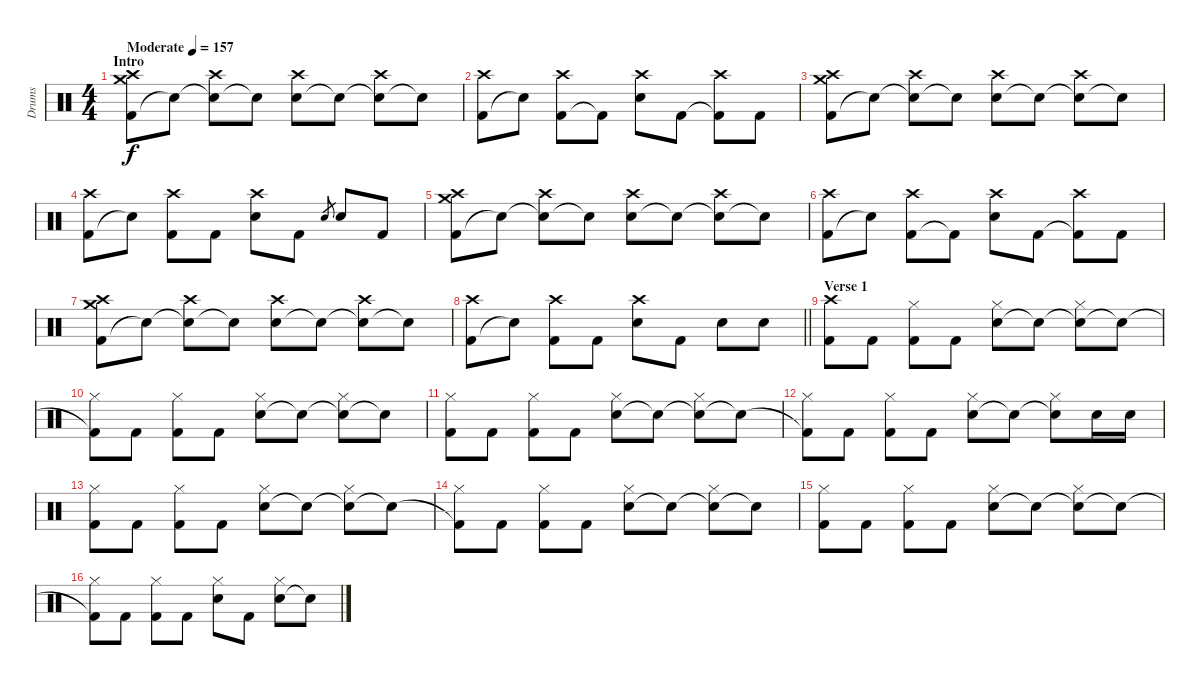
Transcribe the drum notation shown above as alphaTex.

\track ("Drums" "Drums") {instrument percussion}
\staff {score}
\articulation defaults
\ts (4 4)
\section ("" "Intro")
\tempo (157 "Moderate")
\clef neutral
\ks c
("Kick (hit) 2" "Crash medium (hit)" "Crash high (hit)").8{dy f} "Snare (hit)"{t}.8 ("Snare (hit)"{t} "Crash high (hit)").8 "Electric Snare (hit)"{t}.8 ("Electric Snare (hit)" "Crash high (hit)").8 "Snare (hit)"{t}.8 ("Snare (hit)"{t} "Crash high (hit)").8 "Snare (hit)"{t}.8 |
("Kick (hit) 2" "Crash high (hit)").8 "Snare (hit)"{t}.8 ("Kick (hit) 2" "Crash high (hit)").8 "Kick (hit) 2"{t}.8 ("Electric Snare (hit)" "Crash high (hit)").8 "Kick (hit) 2".8 ("Kick (hit) 2"{t} "Crash high (hit)").8 "Kick (hit) 2".8 |
("Kick (hit) 2" "Crash medium (hit)" "Crash high (hit)").8 "Snare (hit)"{t}.8 ("Snare (hit)"{t} "Crash high (hit)").8 "Electric Snare (hit)"{t}.8 ("Electric Snare (hit)" "Crash high (hit)").8 "Snare (hit)"{t}.8 ("Snare (hit)"{t} "Crash high (hit)").8 "Snare (hit)"{t}.8 |
("Kick (hit) 2" "Crash high (hit)").8 "Snare (hit)"{t}.8 ("Kick (hit) 2" "Crash high (hit)").8 "Kick (hit) 2".8 ("Electric Snare (hit)" "Crash high (hit)").8 "Kick (hit) 2".8 "Electric Snare (hit)".8{gr} "Electric Snare (hit)".8 "Kick (hit) 2".8 |
("Kick (hit) 2" "Crash medium (hit)" "Crash high (hit)").8 "Snare (hit)"{t}.8 ("Snare (hit)"{t} "Crash high (hit)").8 "Electric Snare (hit)"{t}.8 ("Electric Snare (hit)" "Crash high (hit)").8 "Snare (hit)"{t}.8 ("Snare (hit)"{t} "Crash high (hit)").8 "Snare (hit)"{t}.8 |
("Kick (hit) 2" "Crash high (hit)").8 "Snare (hit)"{t}.8 ("Kick (hit) 2" "Crash high (hit)").8 "Kick (hit) 2"{t}.8 ("Electric Snare (hit)" "Crash high (hit)").8 "Kick (hit) 2".8 ("Kick (hit) 2"{t} "Crash high (hit)").8 "Kick (hit) 2".8 |
("Kick (hit) 2" "Crash medium (hit)" "Crash high (hit)").8 "Snare (hit)"{t}.8 ("Snare (hit)"{t} "Crash high (hit)").8 "Electric Snare (hit)"{t}.8 ("Electric Snare (hit)" "Crash high (hit)").8 "Snare (hit)"{t}.8 ("Snare (hit)"{t} "Crash high (hit)").8 "Snare (hit)"{t}.8 |
\barLineRight lightlight
("Kick (hit) 2" "Crash high (hit)").8 "Snare (hit)"{t}.8 ("Kick (hit) 2" "Crash high (hit)").8 "Kick (hit) 2".8 ("Electric Snare (hit)" "Crash high (hit)").8 "Kick (hit) 2".8 "Electric Snare (hit)".8 "Electric Snare (hit)".8 |
\section ("" "Verse 1")
("Kick (hit) 2" "Crash high (hit)").8 "Kick (hit) 2".8 ("Kick (hit) 2" "Hi-Hat (closed)").8 "Kick (hit) 2".8 ("Electric Snare (hit)" "Hi-Hat (closed)").8 "Snare (hit)"{t}.8 ("Snare (hit)"{t} "Hi-Hat (closed)").8 "Snare (hit)"{t}.8 |
("Kick (hit) 2"{t} "Hi-Hat (closed)").8 "Kick (hit) 2".8 ("Kick (hit) 2" "Hi-Hat (closed)").8 "Kick (hit) 2".8 ("Electric Snare (hit)" "Hi-Hat (closed)").8 "Electric Snare (hit)"{t}.8 ("Snare (hit)"{t} "Hi-Hat (closed)").8 "Snare (hit)"{t}.8 |
("Kick (hit) 2" "Hi-Hat (closed)").8 "Kick (hit) 2".8 ("Kick (hit) 2" "Hi-Hat (closed)").8 "Kick (hit) 2".8 ("Electric Snare (hit)" "Hi-Hat (closed)").8 "Snare (hit)"{t}.8 ("Snare (hit)"{t} "Hi-Hat (closed)").8 "Snare (hit)"{t}.8 |
("Kick (hit) 2"{t} "Hi-Hat (closed)").8 "Kick (hit) 2".8 ("Kick (hit) 2" "Hi-Hat (closed)").8 "Kick (hit) 2".8 ("Electric Snare (hit)" "Hi-Hat (closed)").8 "Electric Snare (hit)"{t}.8 ("Snare (hit)"{t} "Hi-Hat (closed)").8 "Electric Snare (hit)".16 "Electric Snare (hit)".16 |
("Kick (hit) 2" "Hi-Hat (closed)").8 "Kick (hit) 2".8 ("Kick (hit) 2" "Hi-Hat (closed)").8 "Kick (hit) 2".8 ("Electric Snare (hit)" "Hi-Hat (closed)").8 "Snare (hit)"{t}.8 ("Snare (hit)"{t} "Hi-Hat (closed)").8 "Snare (hit)"{t}.8 |
("Kick (hit) 2"{t} "Hi-Hat (closed)").8 "Kick (hit) 2".8 ("Kick (hit) 2" "Hi-Hat (closed)").8 "Kick (hit) 2".8 ("Electric Snare (hit)" "Hi-Hat (closed)").8 "Electric Snare (hit)"{t}.8 ("Snare (hit)"{t} "Hi-Hat (closed)").8 "Snare (hit)"{t}.8 |
("Kick (hit) 2" "Hi-Hat (closed)").8 "Kick (hit) 2".8 ("Kick (hit) 2" "Hi-Hat (closed)").8 "Kick (hit) 2".8 ("Electric Snare (hit)" "Hi-Hat (closed)").8 "Snare (hit)"{t}.8 ("Snare (hit)"{t} "Hi-Hat (closed)").8 "Snare (hit)"{t}.8 |
("Kick (hit) 2"{t} "Hi-Hat (closed)").8 "Kick (hit) 2".8 ("Kick (hit) 2" "Hi-Hat (closed)").8 "Kick (hit) 2".8 ("Electric Snare (hit)" "Hi-Hat (closed)").8 "Kick (hit) 2".8 ("Electric Snare (hit)" "Hi-Hat (closed)").8 "Snare (hit)"{t}.8
